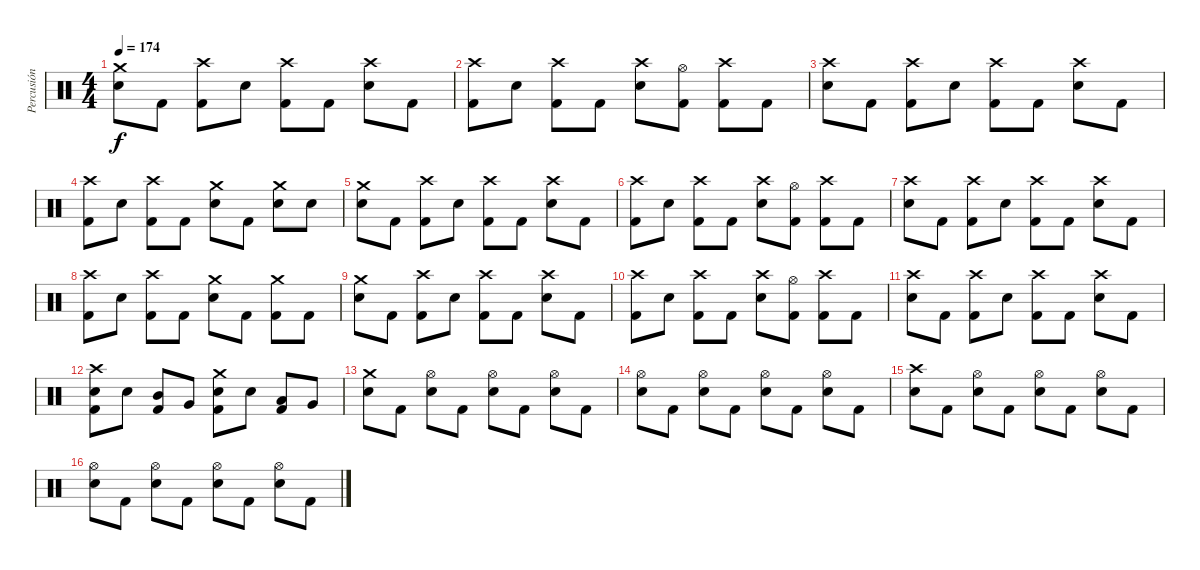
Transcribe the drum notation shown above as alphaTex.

\track ("Percusión" "Percusión") {instrument percussion}
\staff {score}
\articulation defaults
\ts (4 4)
\tempo 174
\clef neutral
\ks c
("Crash medium (hit)" "Electric Snare (hit)").8{dy f} "Kick (hit) 2".8 ("Crash high (hit)" "Kick (hit) 2").8 "Electric Snare (hit)".8 ("Crash high (hit)" "Kick (hit) 2").8 "Kick (hit) 2".8 ("Crash high (hit)" "Electric Snare (hit)").8 "Kick (hit) 2".8 |
("Crash high (hit)" "Kick (hit) 2").8 "Electric Snare (hit)".8 ("Crash high (hit)" "Kick (hit) 2").8 "Kick (hit) 2".8 ("Crash high (hit)" "Electric Snare (hit)").8 ("Hi-Hat (open)" "Kick (hit) 2").8 ("Crash high (hit)" "Kick (hit) 2").8 "Kick (hit) 2".8 |
("Crash high (hit)" "Electric Snare (hit)").8 "Kick (hit) 2".8 ("Crash high (hit)" "Kick (hit) 2").8 "Electric Snare (hit)".8 ("Crash high (hit)" "Kick (hit) 2").8 "Kick (hit) 2".8 ("Crash high (hit)" "Electric Snare (hit)").8 "Kick (hit) 2".8 |
("Crash high (hit)" "Kick (hit) 2").8 "Electric Snare (hit)".8 ("Crash high (hit)" "Kick (hit) 2").8 "Kick (hit) 2".8 ("Crash medium (hit)" "Electric Snare (hit)").8 "Kick (hit) 2".8 ("Crash medium (hit)" "Electric Snare (hit)").8 "Electric Snare (hit)".8 |
("Crash medium (hit)" "Electric Snare (hit)").8 "Kick (hit) 2".8 ("Crash high (hit)" "Kick (hit) 2").8 "Electric Snare (hit)".8 ("Crash high (hit)" "Kick (hit) 2").8 "Kick (hit) 2".8 ("Crash high (hit)" "Electric Snare (hit)").8 "Kick (hit) 2".8 |
("Crash high (hit)" "Kick (hit) 2").8 "Electric Snare (hit)".8 ("Crash high (hit)" "Kick (hit) 2").8 "Kick (hit) 2".8 ("Crash high (hit)" "Electric Snare (hit)").8 ("Hi-Hat (open)" "Kick (hit) 2").8 ("Crash high (hit)" "Kick (hit) 2").8 "Kick (hit) 2".8 |
("Crash high (hit)" "Electric Snare (hit)").8 "Kick (hit) 2".8 ("Crash high (hit)" "Kick (hit) 2").8 "Electric Snare (hit)".8 ("Crash high (hit)" "Kick (hit) 2").8 "Kick (hit) 2".8 ("Crash high (hit)" "Electric Snare (hit)").8 "Kick (hit) 2".8 |
("Crash high (hit)" "Kick (hit) 2").8 "Electric Snare (hit)".8 ("Crash high (hit)" "Kick (hit) 2").8 "Kick (hit) 2".8 ("Crash medium (hit)" "Electric Snare (hit)").8 "Kick (hit) 2".8 ("Crash medium (hit)" "Kick (hit) 2").8 "Kick (hit) 2".8 |
("Crash medium (hit)" "Electric Snare (hit)").8 "Kick (hit) 2".8 ("Crash high (hit)" "Kick (hit) 2").8 "Electric Snare (hit)".8 ("Crash high (hit)" "Kick (hit) 2").8 "Kick (hit) 2".8 ("Crash high (hit)" "Electric Snare (hit)").8 "Kick (hit) 2".8 |
("Crash high (hit)" "Kick (hit) 2").8 "Electric Snare (hit)".8 ("Crash high (hit)" "Kick (hit) 2").8 "Kick (hit) 2".8 ("Crash high (hit)" "Electric Snare (hit)").8 ("Hi-Hat (open)" "Kick (hit) 2").8 ("Crash high (hit)" "Kick (hit) 2").8 "Kick (hit) 2".8 |
("Crash high (hit)" "Electric Snare (hit)").8 "Kick (hit) 2".8 ("Crash high (hit)" "Kick (hit) 2").8 "Electric Snare (hit)".8 ("Crash high (hit)" "Kick (hit) 2").8 "Kick (hit) 2".8 ("Crash high (hit)" "Electric Snare (hit)").8 "Kick (hit) 2".8 |
("Crash high (hit)" "Electric Snare (hit)" "Kick (hit) 2").8 "Electric Snare (hit)".8 ("Mid Tom (hit)" "Kick (hit) 2").8 "Very Low Tom (hit)".8 ("Crash medium (hit)" "Electric Snare (hit)" "Kick (hit) 2").8 "Electric Snare (hit)".8 ("Low Tom (hit)" "Kick (hit) 2").8 "Very Low Tom (hit)".8 |
("Crash medium (hit)" "Electric Snare (hit)").8 "Kick (hit) 2".8 ("Hi-Hat (open)" "Electric Snare (hit)").8 "Kick (hit) 2".8 ("Hi-Hat (open)" "Electric Snare (hit)").8 "Kick (hit) 2".8 ("Hi-Hat (open)" "Electric Snare (hit)").8 "Kick (hit) 2".8 |
("Hi-Hat (open)" "Electric Snare (hit)").8 "Kick (hit) 2".8 ("Hi-Hat (open)" "Electric Snare (hit)").8 "Kick (hit) 2".8 ("Hi-Hat (open)" "Electric Snare (hit)").8 "Kick (hit) 2".8 ("Hi-Hat (open)" "Electric Snare (hit)").8 "Kick (hit) 2".8 |
("Crash high (hit)" "Electric Snare (hit)").8 "Kick (hit) 2".8 ("Hi-Hat (open)" "Electric Snare (hit)").8 "Kick (hit) 2".8 ("Hi-Hat (open)" "Electric Snare (hit)").8 "Kick (hit) 2".8 ("Hi-Hat (open)" "Electric Snare (hit)").8 "Kick (hit) 2".8 |
("Hi-Hat (open)" "Electric Snare (hit)").8 "Kick (hit) 2".8 ("Hi-Hat (open)" "Electric Snare (hit)").8 "Kick (hit) 2".8 ("Hi-Hat (open)" "Electric Snare (hit)").8 "Kick (hit) 2".8 ("Hi-Hat (open)" "Electric Snare (hit)").8 "Kick (hit) 2".8
